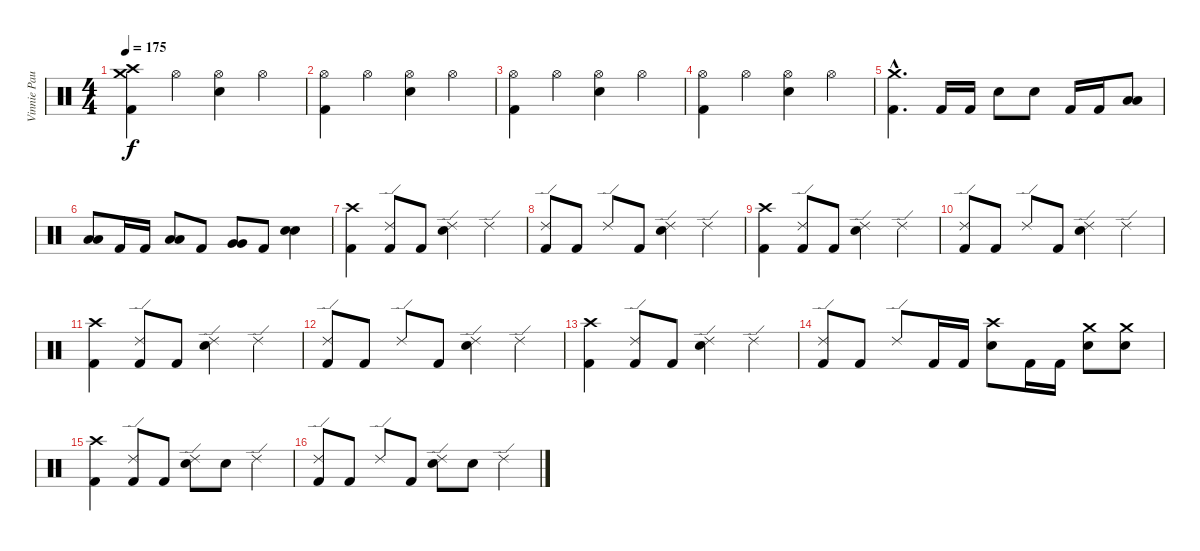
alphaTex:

\track ("Vinnie Paul (Drums)" "Vinnie Pau") {instrument percussion}
\staff {score}
\articulation defaults
\ts (4 4)
\tempo 175
\clef neutral
\ks c
("Crash high (hit)" "Crash medium (hit)" "Kick (hit) 2").4{dy f} "Hi-Hat (open)".4 ("Hi-Hat (open)" "Snare (hit) 2").4 "Hi-Hat (open)".4 |
("Hi-Hat (open)" "Kick (hit) 2").4 "Hi-Hat (open)".4 ("Hi-Hat (open)" "Snare (hit) 2").4 "Hi-Hat (open)".4 |
("Hi-Hat (open)" "Kick (hit) 2").4 "Hi-Hat (open)".4 ("Hi-Hat (open)" "Snare (hit) 2").4 "Hi-Hat (open)".4 |
("Hi-Hat (open)" "Kick (hit) 2").4 "Hi-Hat (open)".4 ("Hi-Hat (open)" "Snare (hit) 2").4 "Hi-Hat (open)".4 |
("Crash medium (hit)"{hac} "Kick (hit) 2"{hac}).4{d} "Kick (hit) 2".16 "Kick (hit) 2".16 "Snare (hit) 2".8 "Snare (hit) 2".8 "Kick (hit) 2".16 "Kick (hit) 2".16 ("Low Tom (hit)" "Low Tom (hit)").8 |
("Low Tom (hit)" "Low Tom (hit)").8 "Kick (hit) 2".16 "Kick (hit) 2".16 ("Low Tom (hit)" "Low Tom (hit)").8{bd 120} "Kick (hit) 2".8 ("Very Low Tom (hit)" "Very Low Tom (hit)").8{bd 120} "Kick (hit) 2".8 ("Snare (hit) 2" "Snare (hit) 2").4{bd 120} |
("Crash high (hit)" "Kick (hit) 2").4 ("Ride (edge) 2" "Kick (hit) 2").8 "Kick (hit) 2".8 ("Ride (edge) 2" "Snare (hit) 2").4 "Ride (edge) 2".4 |
("Ride (edge) 2" "Kick (hit) 2").8 "Kick (hit) 2".8 "Ride (edge) 2".8 "Kick (hit) 2".8 ("Ride (edge) 2" "Snare (hit) 2").4 "Ride (edge) 2".4 |
("Crash high (hit)" "Kick (hit) 2").4 ("Ride (edge) 2" "Kick (hit) 2").8 "Kick (hit) 2".8 ("Ride (edge) 2" "Snare (hit) 2").4 "Ride (edge) 2".4 |
("Ride (edge) 2" "Kick (hit) 2").8 "Kick (hit) 2".8 "Ride (edge) 2".8 "Kick (hit) 2".8 ("Ride (edge) 2" "Snare (hit) 2").4 "Ride (edge) 2".4 |
("Crash high (hit)" "Kick (hit) 2").4 ("Ride (edge) 2" "Kick (hit) 2").8 "Kick (hit) 2".8 ("Ride (edge) 2" "Snare (hit) 2").4 "Ride (edge) 2".4 |
("Ride (edge) 2" "Kick (hit) 2").8 "Kick (hit) 2".8 "Ride (edge) 2".8 "Kick (hit) 2".8 ("Ride (edge) 2" "Snare (hit) 2").4 "Ride (edge) 2".4 |
("Crash high (hit)" "Kick (hit) 2").4 ("Ride (edge) 2" "Kick (hit) 2").8 "Kick (hit) 2".8 ("Ride (edge) 2" "Snare (hit) 2").4 "Ride (edge) 2".4 |
("Ride (edge) 2" "Kick (hit) 2").8 "Kick (hit) 2".8 "Ride (edge) 2".8 "Kick (hit) 2".16 "Kick (hit) 2".16 ("Crash high (hit)" "Snare (hit) 2").8 "Kick (hit) 2".16 "Kick (hit) 2".16 ("Crash medium (hit)" "Snare (hit) 2").8 ("Crash medium (hit)" "Snare (hit) 2").8 |
("Crash high (hit)" "Kick (hit) 2").4 ("Ride (edge) 2" "Kick (hit) 2").8 "Kick (hit) 2".8 ("Ride (edge) 2" "Snare (hit) 2").8 "Snare (hit) 2".8 "Ride (edge) 2".4 |
("Ride (edge) 2" "Kick (hit) 2").8 "Kick (hit) 2".8 "Ride (edge) 2".8 "Kick (hit) 2".8 ("Ride (edge) 2" "Snare (hit) 2").8 "Snare (hit) 2".8 "Ride (edge) 2".4
